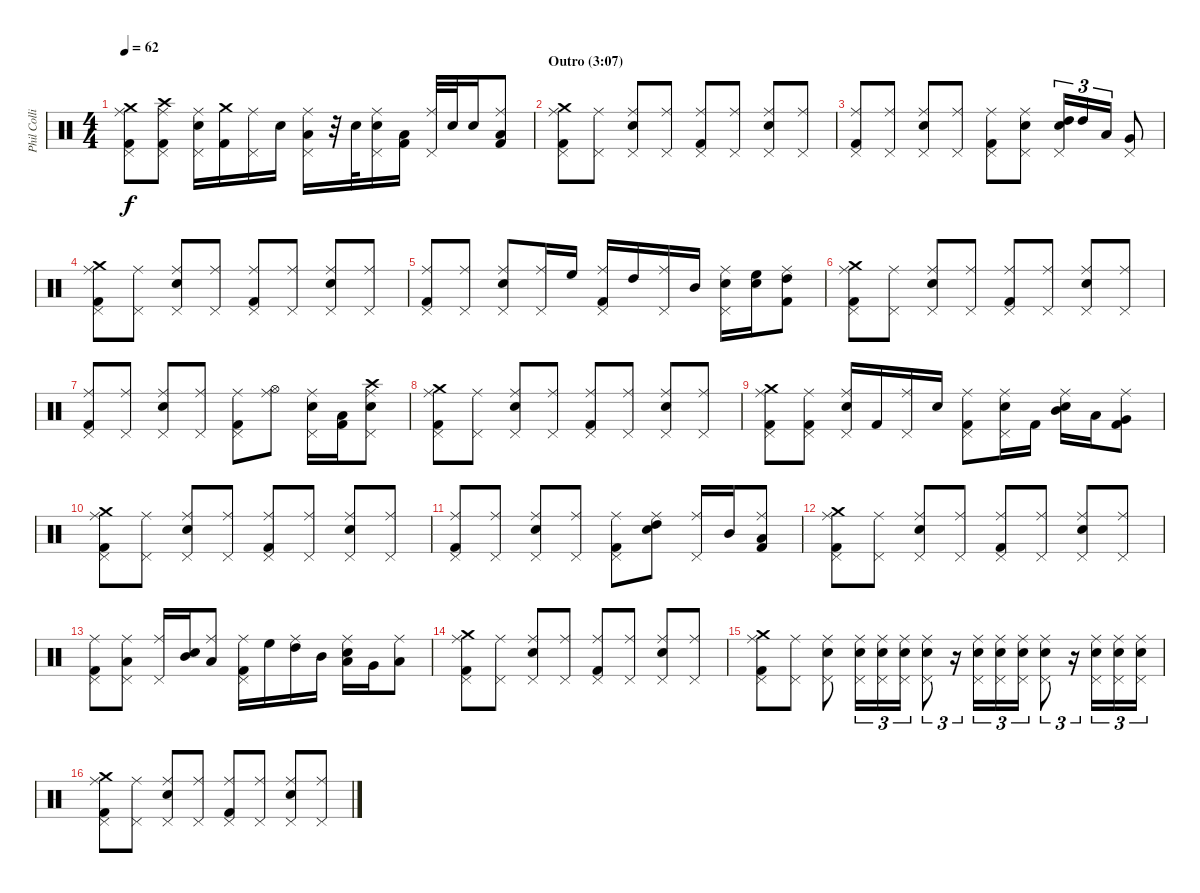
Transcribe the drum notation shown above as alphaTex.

\track ("Phil Collins (drums)" "Phil Colli") {instrument percussion}
\staff {score}
\articulation defaults
\ts (4 4)
\tempo 62
\clef neutral
\ks c
("Crash medium (hit)" "Ride (middle)" "Pedal Hi-Hat (hit)" "Kick (hit) 2").8{dy f} ("Crash high (hit)" "Ride (middle)" "Pedal Hi-Hat (hit)" "Kick (hit) 2").8 ("Ride (middle)" "Pedal Hi-Hat (hit)" "Electric Snare (hit)").16 ("Crash medium (hit)" "Kick (hit) 2").16 ("Ride (middle)" "Pedal Hi-Hat (hit)").16 "Electric Snare (hit)".16 ("Ride (middle)" "Pedal Hi-Hat (hit)" "Low Tom (hit)").16 r.32 "Electric Snare (hit)".32 ("Ride (middle)" "Pedal Hi-Hat (hit)" "Electric Snare (hit)").16 ("Low Tom (hit)" "Kick (hit) 2").16 ("Ride (middle)" "Pedal Hi-Hat (hit)").32 "Electric Snare (hit)".32 "Electric Snare (hit)".16 ("Ride (middle)" "Low Tom (hit)" "Kick (hit) 2").8 |
\section ("" "Outro (3:07)")
("Crash medium (hit)" "Ride (middle)" "Pedal Hi-Hat (hit)" "Kick (hit) 2").8 ("Ride (middle)" "Pedal Hi-Hat (hit)").8 ("Ride (middle)" "Pedal Hi-Hat (hit)" "Electric Snare (hit)").8 ("Ride (middle)" "Pedal Hi-Hat (hit)").8 ("Ride (middle)" "Pedal Hi-Hat (hit)" "Kick (hit) 2").8 ("Ride (middle)" "Pedal Hi-Hat (hit)").8 ("Ride (middle)" "Pedal Hi-Hat (hit)" "Electric Snare (hit)").8 ("Ride (middle)" "Pedal Hi-Hat (hit)").8 |
("Ride (middle)" "Pedal Hi-Hat (hit)" "Kick (hit) 2").8 ("Ride (middle)" "Pedal Hi-Hat (hit)").8 ("Ride (middle)" "Pedal Hi-Hat (hit)" "Electric Snare (hit)").8 ("Ride (middle)" "Pedal Hi-Hat (hit)").8 ("Ride (middle)" "Pedal Hi-Hat (hit)" "Kick (hit) 2").8 ("Ride (middle)" "Pedal Hi-Hat (hit)" "Electric Snare (hit)").8 ("High Tom (hit)" "Pedal Hi-Hat (hit)" "Electric Snare (hit)").16{tu (3 2)} "High Tom (hit)".16{tu (3 2)} "Low Tom (hit)".16{tu (3 2)} ("Very Low Tom (hit)" "Pedal Hi-Hat (hit)").8 |
("Crash medium (hit)" "Ride (middle)" "Pedal Hi-Hat (hit)" "Kick (hit) 2").8 ("Ride (middle)" "Pedal Hi-Hat (hit)").8 ("Ride (middle)" "Pedal Hi-Hat (hit)" "Electric Snare (hit)").8 ("Ride (middle)" "Pedal Hi-Hat (hit)").8 ("Ride (middle)" "Pedal Hi-Hat (hit)" "Kick (hit) 2").8 ("Ride (middle)" "Pedal Hi-Hat (hit)").8 ("Ride (middle)" "Pedal Hi-Hat (hit)" "Electric Snare (hit)").8 ("Ride (middle)" "Pedal Hi-Hat (hit)").8 |
("Ride (middle)" "Pedal Hi-Hat (hit)" "Kick (hit) 2").8 ("Ride (middle)" "Pedal Hi-Hat (hit)").8 ("Ride (middle)" "Pedal Hi-Hat (hit)" "Electric Snare (hit)").8 ("Ride (middle)" "Pedal Hi-Hat (hit)").16 "High Floor Tom (hit)".16 ("Ride (middle)" "Pedal Hi-Hat (hit)" "Kick (hit) 2").16 "High Tom (hit)".16 ("Ride (middle)" "Pedal Hi-Hat (hit)").16 "Mid Tom (hit)".16 ("Ride (middle)" "Pedal Hi-Hat (hit)" "Electric Snare (hit)").16 ("High Floor Tom (hit)" "Electric Snare (hit)").16 ("Ride (middle)" "High Tom (hit)" "Kick (hit) 2").8 |
("Crash medium (hit)" "Ride (middle)" "Pedal Hi-Hat (hit)" "Kick (hit) 2").8 ("Ride (middle)" "Pedal Hi-Hat (hit)").8 ("Ride (middle)" "Pedal Hi-Hat (hit)" "Electric Snare (hit)").8 ("Ride (middle)" "Pedal Hi-Hat (hit)").8 ("Ride (middle)" "Pedal Hi-Hat (hit)" "Kick (hit) 2").8 ("Ride (middle)" "Pedal Hi-Hat (hit)").8 ("Ride (middle)" "Pedal Hi-Hat (hit)" "Electric Snare (hit)").8 ("Ride (middle)" "Pedal Hi-Hat (hit)").8 |
("Ride (middle)" "Pedal Hi-Hat (hit)" "Kick (hit) 2").8 ("Ride (middle)" "Pedal Hi-Hat (hit)").8 ("Ride (middle)" "Pedal Hi-Hat (hit)" "Electric Snare (hit)").8 ("Ride (middle)" "Pedal Hi-Hat (hit)").8 ("Ride (middle)" "Pedal Hi-Hat (hit)" "Kick (hit) 2").8 ("Ride (middle)" "Hi-Hat (open)").8 ("Ride (middle)" "Pedal Hi-Hat (hit)" "Electric Snare (hit)").16 ("Low Tom (hit)" "Kick (hit) 2").16 ("Crash high (hit)" "Ride (middle)" "Pedal Hi-Hat (hit)" "Electric Snare (hit)").8 |
("Crash medium (hit)" "Ride (middle)" "Pedal Hi-Hat (hit)" "Kick (hit) 2").8 ("Ride (middle)" "Pedal Hi-Hat (hit)").8 ("Ride (middle)" "Pedal Hi-Hat (hit)" "Electric Snare (hit)").8 ("Ride (middle)" "Pedal Hi-Hat (hit)").8 ("Ride (middle)" "Pedal Hi-Hat (hit)" "Kick (hit) 2").8 ("Ride (middle)" "Pedal Hi-Hat (hit)").8 ("Ride (middle)" "Pedal Hi-Hat (hit)" "Electric Snare (hit)").8 ("Ride (middle)" "Pedal Hi-Hat (hit)").8 |
("Crash medium (hit)" "Ride (middle)" "Pedal Hi-Hat (hit)" "Kick (hit) 2").8 ("Ride (middle)" "Pedal Hi-Hat (hit)" "Kick (hit) 2").8 ("Ride (middle)" "Pedal Hi-Hat (hit)" "Electric Snare (hit)").16 "Kick (hit) 2".16 ("Ride (middle)" "Pedal Hi-Hat (hit)").16 "Electric Snare (hit)".16 ("Ride (middle)" "Pedal Hi-Hat (hit)" "Kick (hit) 2").8 ("Ride (middle)" "Pedal Hi-Hat (hit)" "Electric Snare (hit)").16 "Kick (hit) 2".16 ("Ride (middle)" "Mid Tom (hit)" "Electric Snare (hit)").16 "Low Tom (hit)".16 ("Ride (middle)" "Very Low Tom (hit)" "Kick (hit) 2").8 |
("Crash medium (hit)" "Ride (middle)" "Pedal Hi-Hat (hit)" "Kick (hit) 2").8 ("Ride (middle)" "Pedal Hi-Hat (hit)").8 ("Ride (middle)" "Pedal Hi-Hat (hit)" "Electric Snare (hit)").8 ("Ride (middle)" "Pedal Hi-Hat (hit)").8 ("Ride (middle)" "Pedal Hi-Hat (hit)" "Kick (hit) 2").8 ("Ride (middle)" "Pedal Hi-Hat (hit)").8 ("Ride (middle)" "Pedal Hi-Hat (hit)" "Electric Snare (hit)").8 ("Ride (middle)" "Pedal Hi-Hat (hit)").8 |
("Ride (middle)" "Pedal Hi-Hat (hit)" "Kick (hit) 2").8 ("Ride (middle)" "Pedal Hi-Hat (hit)").8 ("Ride (middle)" "Pedal Hi-Hat (hit)" "Electric Snare (hit)").8 ("Ride (middle)" "Pedal Hi-Hat (hit)").8 ("Ride (middle)" "Pedal Hi-Hat (hit)" "Kick (hit) 2").8 ("Ride (middle)" "High Tom (hit)" "Electric Snare (hit)").8 ("Ride (middle)" "Pedal Hi-Hat (hit)").16 "Mid Tom (hit)".16 ("Ride (middle)" "Low Tom (hit)" "Kick (hit) 2").8 |
("Crash medium (hit)" "Ride (middle)" "Pedal Hi-Hat (hit)" "Kick (hit) 2").8 ("Ride (middle)" "Pedal Hi-Hat (hit)").8 ("Ride (middle)" "Pedal Hi-Hat (hit)" "Electric Snare (hit)").8 ("Ride (middle)" "Pedal Hi-Hat (hit)").8 ("Ride (middle)" "Pedal Hi-Hat (hit)" "Kick (hit) 2").8 ("Ride (middle)" "Pedal Hi-Hat (hit)").8 ("Ride (middle)" "Pedal Hi-Hat (hit)" "Electric Snare (hit)").8 ("Ride (middle)" "Pedal Hi-Hat (hit)").8 |
("Ride (middle)" "Pedal Hi-Hat (hit)" "Kick (hit) 2").8 ("Ride (middle)" "Pedal Hi-Hat (hit)" "Low Tom (hit)").8 ("Ride (middle)" "Pedal Hi-Hat (hit)").16 ("Mid Tom (hit)" "Electric Snare (hit)").16 ("Ride (middle)" "Low Tom (hit)").8 ("Ride (middle)" "Pedal Hi-Hat (hit)" "Kick (hit) 2").16 "High Floor Tom (hit)".16 ("Ride (middle)" "High Tom (hit)").16 "Mid Tom (hit)".16 ("Ride (middle)" "Low Tom (hit)" "Electric Snare (hit)").16 "Very Low Tom (hit)".16 ("Ride (middle)" "Low Floor Tom (hit)").8 |
("Crash medium (hit)" "Ride (middle)" "Pedal Hi-Hat (hit)" "Kick (hit) 2").8{volume 8} ("Ride (middle)" "Pedal Hi-Hat (hit)").8 ("Ride (middle)" "Pedal Hi-Hat (hit)" "Electric Snare (hit)").8 ("Ride (middle)" "Pedal Hi-Hat (hit)").8 ("Ride (middle)" "Pedal Hi-Hat (hit)" "Kick (hit) 2").8 ("Ride (middle)" "Pedal Hi-Hat (hit)").8 ("Ride (middle)" "Pedal Hi-Hat (hit)" "Electric Snare (hit)").8 ("Ride (middle)" "Pedal Hi-Hat (hit)").8 |
("Crash medium (hit)" "Ride (middle)" "Pedal Hi-Hat (hit)" "Kick (hit) 2").8 ("Ride (middle)" "Pedal Hi-Hat (hit)").8 ("Ride (middle)" "Pedal Hi-Hat (hit)" "Electric Snare (hit)").8 ("Ride (middle)" "Pedal Hi-Hat (hit)" "Electric Snare (hit)").16{tu (3 2)} ("Ride (middle)" "Pedal Hi-Hat (hit)" "Electric Snare (hit)").16{tu (3 2)} ("Ride (middle)" "Pedal Hi-Hat (hit)" "Electric Snare (hit)").16{tu (3 2)} ("Ride (middle)" "Pedal Hi-Hat (hit)" "Electric Snare (hit)").8{tu (3 2)} r.16{tu (3 2)} ("Ride (middle)" "Pedal Hi-Hat (hit)" "Electric Snare (hit)").16{tu (3 2)} ("Ride (middle)" "Pedal Hi-Hat (hit)" "Electric Snare (hit)").16{tu (3 2)} ("Ride (middle)" "Pedal Hi-Hat (hit)" "Electric Snare (hit)").16{tu (3 2)} ("Ride (middle)" "Pedal Hi-Hat (hit)" "Electric Snare (hit)").8{tu (3 2)} r.16{tu (3 2)} ("Ride (middle)" "Pedal Hi-Hat (hit)" "Electric Snare (hit)").16{tu (3 2)} ("Ride (middle)" "Pedal Hi-Hat (hit)" "Electric Snare (hit)").16{tu (3 2)} ("Ride (middle)" "Pedal Hi-Hat (hit)" "Electric Snare (hit)").16{tu (3 2)} |
("Crash medium (hit)" "Ride (middle)" "Pedal Hi-Hat (hit)" "Kick (hit) 2").8{volume 0} ("Ride (middle)" "Pedal Hi-Hat (hit)").8 ("Ride (middle)" "Pedal Hi-Hat (hit)" "Electric Snare (hit)").8 ("Ride (middle)" "Pedal Hi-Hat (hit)").8 ("Ride (middle)" "Pedal Hi-Hat (hit)" "Kick (hit) 2").8 ("Ride (middle)" "Pedal Hi-Hat (hit)").8 ("Ride (middle)" "Pedal Hi-Hat (hit)" "Electric Snare (hit)").8 ("Ride (middle)" "Pedal Hi-Hat (hit)").8
